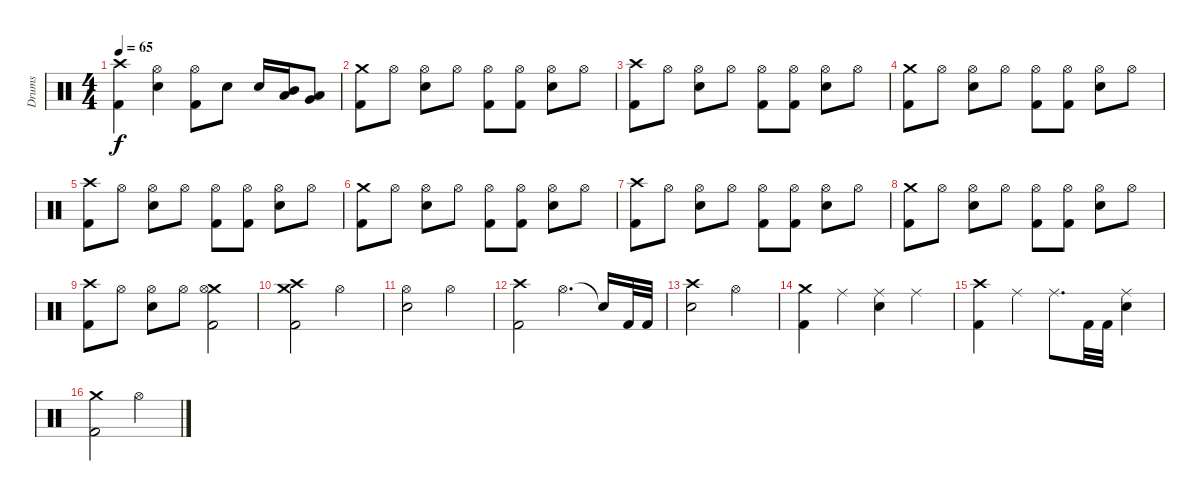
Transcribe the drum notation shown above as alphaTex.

\track ("Drums" "Drums") {instrument percussion}
\staff {score}
\articulation defaults
\ts (4 4)
\tempo 65
\clef neutral
\ks c
("Crash high (hit)" "Kick (hit) 2").4{dy f} ("Hi-Hat (open)" "Snare (hit) 2").4 ("Hi-Hat (open)" "Kick (hit) 2").8 "Snare (hit) 2".8 "Snare (hit) 2".16 ("Mid Tom (hit)" "Low Tom (hit)").16 ("Low Tom (hit)" "Very Low Tom (hit)").8 |
("Crash medium (hit)" "Kick (hit) 2").8 "Hi-Hat (open)".8 ("Hi-Hat (open)" "Snare (hit) 2").8 "Hi-Hat (open)".8 ("Hi-Hat (open)" "Kick (hit) 2").8 ("Hi-Hat (open)" "Kick (hit) 2").8 ("Hi-Hat (open)" "Snare (hit) 2").8 "Hi-Hat (open)".8 |
("Crash high (hit)" "Kick (hit) 2").8 "Hi-Hat (open)".8 ("Hi-Hat (open)" "Snare (hit) 2").8 "Hi-Hat (open)".8 ("Hi-Hat (open)" "Kick (hit) 2").8 ("Hi-Hat (open)" "Kick (hit) 2").8 ("Hi-Hat (open)" "Snare (hit) 2").8 "Hi-Hat (open)".8 |
("Crash medium (hit)" "Kick (hit) 2").8 "Hi-Hat (open)".8 ("Hi-Hat (open)" "Snare (hit) 2").8 "Hi-Hat (open)".8 ("Hi-Hat (open)" "Kick (hit) 2").8 ("Hi-Hat (open)" "Kick (hit) 2").8 ("Hi-Hat (open)" "Snare (hit) 2").8 "Hi-Hat (open)".8 |
("Crash high (hit)" "Kick (hit) 2").8 "Hi-Hat (open)".8 ("Hi-Hat (open)" "Snare (hit) 2").8 "Hi-Hat (open)".8 ("Hi-Hat (open)" "Kick (hit) 2").8 ("Hi-Hat (open)" "Kick (hit) 2").8 ("Hi-Hat (open)" "Snare (hit) 2").8 "Hi-Hat (open)".8 |
("Crash medium (hit)" "Kick (hit) 2").8 "Hi-Hat (open)".8 ("Hi-Hat (open)" "Snare (hit) 2").8 "Hi-Hat (open)".8 ("Hi-Hat (open)" "Kick (hit) 2").8 ("Hi-Hat (open)" "Kick (hit) 2").8 ("Hi-Hat (open)" "Snare (hit) 2").8 "Hi-Hat (open)".8 |
("Crash high (hit)" "Kick (hit) 2").8 "Hi-Hat (open)".8 ("Hi-Hat (open)" "Snare (hit) 2").8 "Hi-Hat (open)".8 ("Hi-Hat (open)" "Kick (hit) 2").8 ("Hi-Hat (open)" "Kick (hit) 2").8 ("Hi-Hat (open)" "Snare (hit) 2").8 "Hi-Hat (open)".8 |
("Crash medium (hit)" "Kick (hit) 2").8 "Hi-Hat (open)".8 ("Hi-Hat (open)" "Snare (hit) 2").8 "Hi-Hat (open)".8 ("Hi-Hat (open)" "Kick (hit) 2").8 ("Hi-Hat (open)" "Kick (hit) 2").8 ("Hi-Hat (open)" "Snare (hit) 2").8 "Hi-Hat (open)".8 |
("Crash high (hit)" "Kick (hit) 2").8 "Hi-Hat (open)".8 ("Hi-Hat (open)" "Snare (hit) 2").8 "Hi-Hat (open)".8 ("Crash medium (hit)" "Hi-Hat (open)" "Kick (hit) 2").2 |
("Crash high (hit)" "Crash medium (hit)" "Kick (hit) 2").2 "Hi-Hat (open)".2 |
("Hi-Hat (open)" "Snare (hit) 2").2 "Hi-Hat (open)".2 |
("Crash high (hit)" "Kick (hit) 2").2 "Hi-Hat (open)".4{d} "Snare (hit)"{t}.16 "Kick (hit) 2".32 "Kick (hit) 2".32 |
("Crash high (hit)" "Snare (hit) 2").2 "Hi-Hat (open)".2 |
("Crash medium (hit)" "Kick (hit) 2").4 "Ride (middle)".4 ("Ride (middle)" "Snare (hit) 2").4 "Ride (middle)".4 |
("Crash high (hit)" "Kick (hit) 2").4 "Ride (middle)".4 "Ride (middle)".8{d} "Kick (hit) 2".32 "Kick (hit) 2".32 ("Ride (middle)" "Snare (hit) 2").4 |
("Crash medium (hit)" "Kick (hit) 2").2 "Hi-Hat (open)".2
